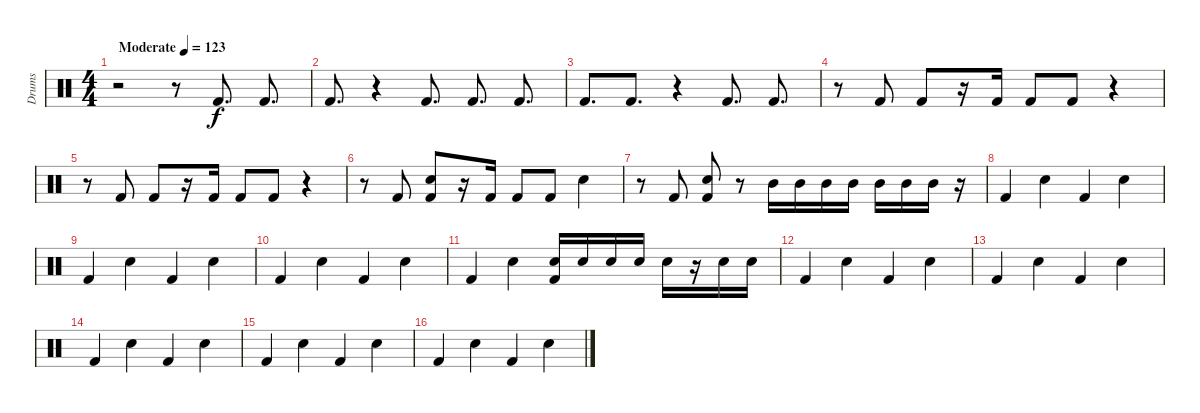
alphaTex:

\track ("Drums" "Drums") {instrument percussion}
\staff {score}
\articulation defaults
\ts (4 4)
\tempo (123 "Moderate")
\clef neutral
\ks c
r.2{dy f} r.8 "Kick (hit) 2".8{d volume 7} "Kick (hit) 2".8{d} |
"Kick (hit) 2".8{d} r.4 "Kick (hit) 2".8{d} "Kick (hit) 2".8{d} "Kick (hit) 2".8{d} |
"Kick (hit) 2".8{d} "Kick (hit) 2".8{d} r.4 "Kick (hit) 2".8{d} "Kick (hit) 2".8{d} |
r.8{volume 13} "Kick (hit) 2".8 "Kick (hit) 2".8 r.16 "Kick (hit) 2".16 "Kick (hit) 2".8 "Kick (hit) 2".8 r.4 |
r.8 "Kick (hit) 2".8 "Kick (hit) 2".8 r.16 "Kick (hit) 2".16 "Kick (hit) 2".8 "Kick (hit) 2".8 r.4 |
r.8 "Kick (hit) 2".8 ("Kick (hit) 2" "Electric Snare (hit)").8 r.16 "Kick (hit) 2".16 "Kick (hit) 2".8 "Kick (hit) 2".8 "Electric Snare (hit)".4 |
r.8 "Kick (hit) 2".8 ("Kick (hit) 2" "Electric Snare (hit)").8 r.8 "Mid Tom (hit)".16 "Mid Tom (hit)".16 "Mid Tom (hit)".16 "Mid Tom (hit)".16 "Mid Tom (hit)".16 "Mid Tom (hit)".16 "Mid Tom (hit)".16 r.16 |
"Kick (hit) 2".4 "Electric Snare (hit)".4 "Kick (hit) 2".4 "Electric Snare (hit)".4 |
"Kick (hit) 2".4 "Electric Snare (hit)".4 "Kick (hit) 2".4 "Electric Snare (hit)".4 |
"Kick (hit) 2".4 "Electric Snare (hit)".4 "Kick (hit) 2".4 "Electric Snare (hit)".4 |
"Kick (hit) 2".4 "Electric Snare (hit)".4 ("Electric Snare (hit)" "Kick (hit) 2").16 "Electric Snare (hit)".16 "Electric Snare (hit)".16 "Electric Snare (hit)".16 "Electric Snare (hit)".16 r.16 "Electric Snare (hit)".16 "Electric Snare (hit)".16 |
"Kick (hit) 2".4 "Electric Snare (hit)".4 "Kick (hit) 2".4 "Electric Snare (hit)".4 |
"Kick (hit) 2".4 "Electric Snare (hit)".4 "Kick (hit) 2".4 "Electric Snare (hit)".4 |
"Kick (hit) 2".4 "Electric Snare (hit)".4 "Kick (hit) 2".4 "Electric Snare (hit)".4 |
"Kick (hit) 2".4 "Electric Snare (hit)".4 "Kick (hit) 2".4 "Electric Snare (hit)".4 |
"Kick (hit) 2".4 "Electric Snare (hit)".4 "Kick (hit) 2".4 "Electric Snare (hit)".4
